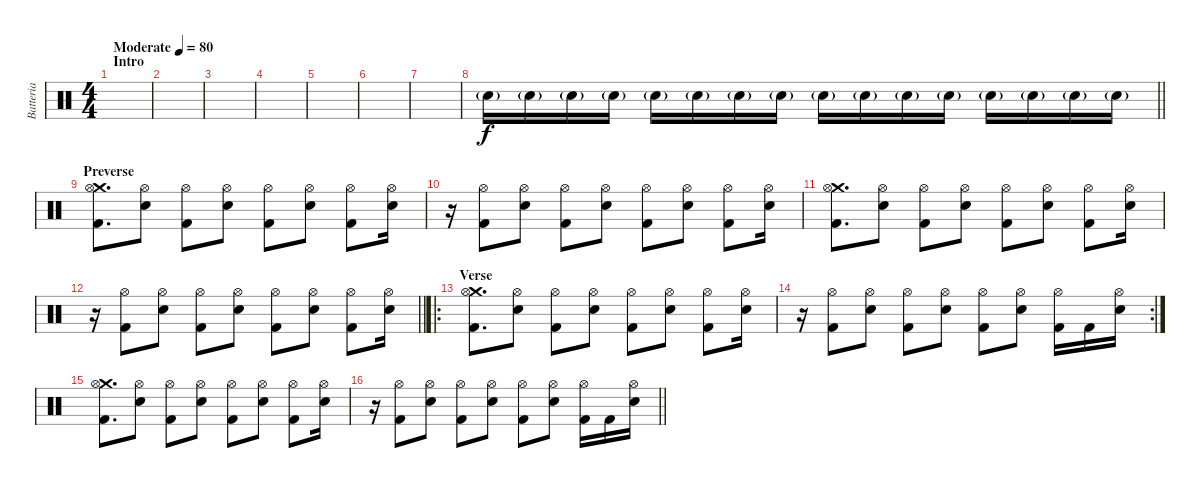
\track ("Batteria" "Batteria") {instrument percussion}
\staff {score}
\articulation defaults
\ts (4 4)
\section ("" "Intro")
\tempo (80 "Moderate")
\clef neutral
\ks c
|
|
|
|
|
|
|
\barLineRight lightlight "Electric Snare (hit)"{g}.16 "Electric Snare (hit)"{g}.16 "Electric Snare (hit)"{g}.16 "Electric Snare (hit)"{g}.16 "Electric Snare (hit)"{g}.16 "Electric Snare (hit)"{g}.16 "Electric Snare (hit)"{g}.16 "Electric Snare (hit)"{g}.16 "Electric Snare (hit)"{g}.16 "Electric Snare (hit)"{g}.16 "Electric Snare (hit)"{g}.16 "Electric Snare (hit)"{g}.16 "Electric Snare (hit)"{g}.16 "Electric Snare (hit)"{g}.16 "Electric Snare (hit)"{g}.16 "Electric Snare (hit)"{g}.16
|
\section ("" "Preverse")
("Crash medium (hit)" "Hi-Hat (open)" "Kick (hit) 2").8{d dy f} ("Hi-Hat (open)" "Electric Snare (hit)").8 ("Hi-Hat (open)" "Kick (hit) 2").8 ("Hi-Hat (open)" "Electric Snare (hit)").8 ("Hi-Hat (open)" "Kick (hit) 2").8 ("Hi-Hat (open)" "Electric Snare (hit)").8 ("Hi-Hat (open)" "Kick (hit) 2").8 ("Hi-Hat (open)" "Electric Snare (hit)").16 |
r.16 ("Hi-Hat (open)" "Kick (hit) 2").8 ("Hi-Hat (open)" "Electric Snare (hit)").8 ("Hi-Hat (open)" "Kick (hit) 2").8 ("Hi-Hat (open)" "Electric Snare (hit)").8 ("Hi-Hat (open)" "Kick (hit) 2").8 ("Hi-Hat (open)" "Electric Snare (hit)").8 ("Hi-Hat (open)" "Kick (hit) 2").8 ("Hi-Hat (open)" "Electric Snare (hit)").16 |
("Crash medium (hit)" "Hi-Hat (open)" "Kick (hit) 2").8{d} ("Hi-Hat (open)" "Electric Snare (hit)").8 ("Hi-Hat (open)" "Kick (hit) 2").8 ("Hi-Hat (open)" "Electric Snare (hit)").8 ("Hi-Hat (open)" "Kick (hit) 2").8 ("Hi-Hat (open)" "Electric Snare (hit)").8 ("Hi-Hat (open)" "Kick (hit) 2").8 ("Hi-Hat (open)" "Electric Snare (hit)").16 |
\barLineRight lightlight
r.16 ("Hi-Hat (open)" "Kick (hit) 2").8 ("Hi-Hat (open)" "Electric Snare (hit)").8 ("Hi-Hat (open)" "Kick (hit) 2").8 ("Hi-Hat (open)" "Electric Snare (hit)").8 ("Hi-Hat (open)" "Kick (hit) 2").8 ("Hi-Hat (open)" "Electric Snare (hit)").8 ("Hi-Hat (open)" "Kick (hit) 2").8 ("Hi-Hat (open)" "Electric Snare (hit)").16 |
\ro
\section ("" "Verse")
("Crash medium (hit)" "Hi-Hat (open)" "Kick (hit) 2").8{d} ("Hi-Hat (open)" "Electric Snare (hit)").8 ("Hi-Hat (open)" "Kick (hit) 2").8 ("Hi-Hat (open)" "Electric Snare (hit)").8 ("Hi-Hat (open)" "Kick (hit) 2").8 ("Hi-Hat (open)" "Electric Snare (hit)").8 ("Hi-Hat (open)" "Kick (hit) 2").8 ("Hi-Hat (open)" "Electric Snare (hit)").16 |
\rc 2
r.16 ("Hi-Hat (open)" "Kick (hit) 2").8 ("Hi-Hat (open)" "Electric Snare (hit)").8 ("Hi-Hat (open)" "Kick (hit) 2").8 ("Hi-Hat (open)" "Electric Snare (hit)").8 ("Hi-Hat (open)" "Kick (hit) 2").8 ("Hi-Hat (open)" "Electric Snare (hit)").8 ("Hi-Hat (open)" "Kick (hit) 2").16 "Kick (hit) 2".16 ("Hi-Hat (open)" "Electric Snare (hit)").16 |
("Crash medium (hit)" "Hi-Hat (open)" "Kick (hit) 2").8{d} ("Hi-Hat (open)" "Electric Snare (hit)").8 ("Hi-Hat (open)" "Kick (hit) 2").8 ("Hi-Hat (open)" "Electric Snare (hit)").8 ("Hi-Hat (open)" "Kick (hit) 2").8 ("Hi-Hat (open)" "Electric Snare (hit)").8 ("Hi-Hat (open)" "Kick (hit) 2").8 ("Hi-Hat (open)" "Electric Snare (hit)").16 |
\barLineRight lightlight
r.16 ("Hi-Hat (open)" "Kick (hit) 2").8 ("Hi-Hat (open)" "Electric Snare (hit)").8 ("Hi-Hat (open)" "Kick (hit) 2").8 ("Hi-Hat (open)" "Electric Snare (hit)").8 ("Hi-Hat (open)" "Kick (hit) 2").8 ("Hi-Hat (open)" "Electric Snare (hit)").8 ("Hi-Hat (open)" "Kick (hit) 2").16 "Kick (hit) 2".16 ("Hi-Hat (open)" "Electric Snare (hit)").16
